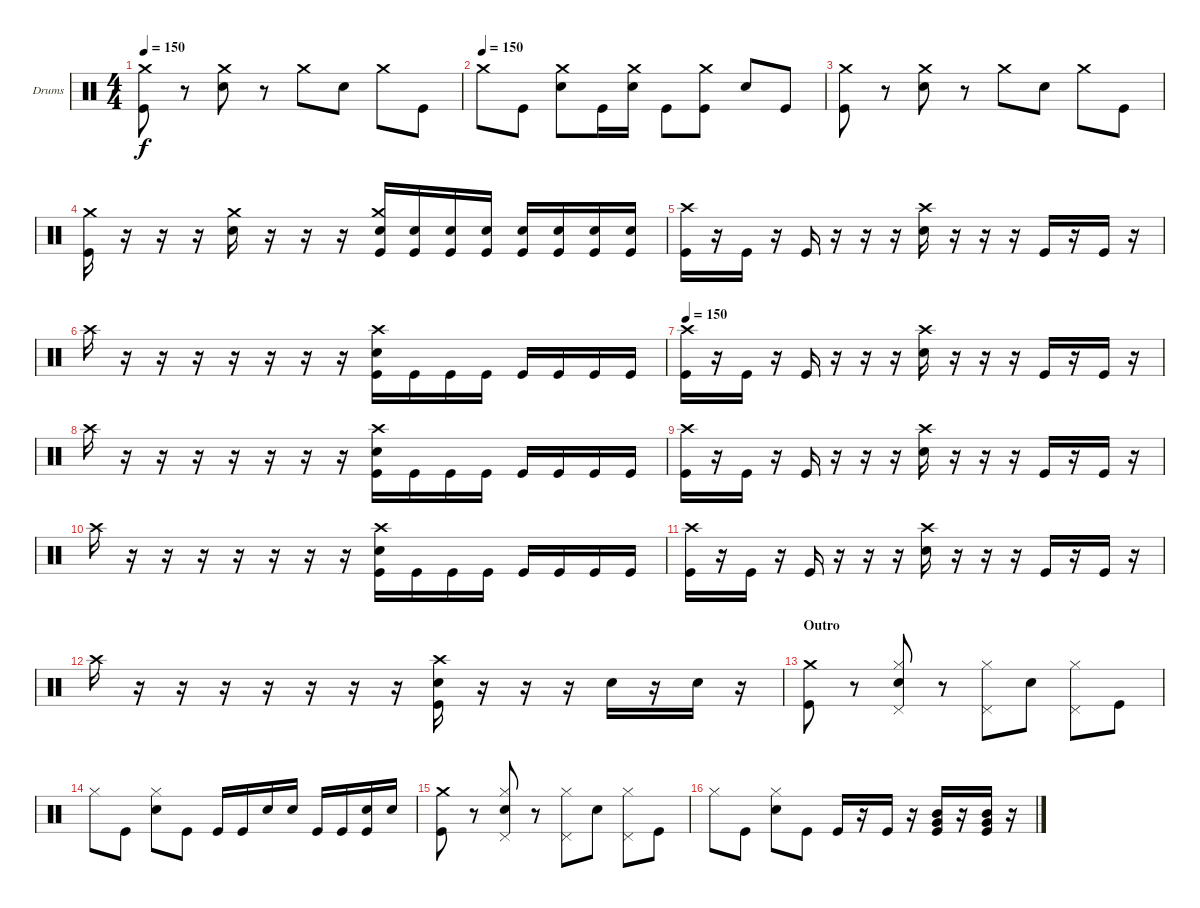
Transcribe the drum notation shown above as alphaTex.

\bracketExtendMode groupsimilarinstruments
\firstSystemTrackNameOrientation horizontal
\otherSystemsTrackNameOrientation horizontal
\track ("Cory La Quay" "Drums") {instrument percussion}
\staff {score}
\articulation defaults
\ts (4 4)
\tempo 150
\clef neutral
\ks c
("Kick (hit)" "Crash medium (hit)").8{dy f} r.8 ("Snare (hit) 2" "Crash medium (hit)").8 r.8 "Crash medium (hit)".8 "Snare (hit) 2".8 "Crash medium (hit)".8 "Kick (hit)".8 |
\tempo (150)
"Crash medium (hit)".8 "Kick (hit)".8 ("Crash medium (hit)" "Snare (hit) 2").8 "Kick (hit)".16 ("Crash medium (hit)" "Snare (hit) 2").16 "Kick (hit)".8 ("Crash medium (hit)" "Kick (hit)").8 "Snare (hit) 2".8 "Kick (hit)".8 |
("Kick (hit)" "Crash medium (hit)").8 r.8 ("Snare (hit) 2" "Crash medium (hit)").8 r.8 "Crash medium (hit)".8 "Snare (hit) 2".8 "Crash medium (hit)".8 "Kick (hit)".8 |
("Kick (hit)" "Crash medium (hit)").16 r.16 r.16 r.16 ("Snare (hit) 2" "Crash medium (hit)").16 r.16 r.16 r.16 ("Snare (hit) 2" "Kick (hit)" "Crash medium (hit)").16 ("Snare (hit) 2" "Kick (hit)").16 ("Snare (hit) 2" "Kick (hit)").16 ("Snare (hit) 2" "Kick (hit)").16 ("Snare (hit) 2" "Kick (hit)").16 ("Snare (hit) 2" "Kick (hit)").16 ("Snare (hit) 2" "Kick (hit)").16 ("Snare (hit) 2" "Kick (hit)").16 |
("Crash high (hit)" "Kick (hit)").16 r.16 "Kick (hit)".16 r.16 "Kick (hit)".16 r.16 r.16 r.16 ("Crash high (hit)" "Snare (hit) 2").16 r.16 r.16 r.16 "Kick (hit)".16 r.16 "Kick (hit)".16 r.16 |
"Crash high (hit)".16 r.16 r.16 r.16 r.16 r.16 r.16 r.16 ("Crash high (hit)" "Snare (hit) 2" "Kick (hit)").16 "Kick (hit)".16 "Kick (hit)".16 "Kick (hit)".16 "Kick (hit)".16 "Kick (hit)".16 "Kick (hit)".16 "Kick (hit)".16 |
\tempo 150
("Crash high (hit)" "Kick (hit)").16 r.16 "Kick (hit)".16 r.16 "Kick (hit)".16 r.16 r.16 r.16 ("Crash high (hit)" "Snare (hit) 2").16 r.16 r.16 r.16 "Kick (hit)".16 r.16 "Kick (hit)".16 r.16 |
"Crash high (hit)".16 r.16 r.16 r.16 r.16 r.16 r.16 r.16 ("Crash high (hit)" "Snare (hit) 2" "Kick (hit)").16 "Kick (hit)".16 "Kick (hit)".16 "Kick (hit)".16 "Kick (hit)".16 "Kick (hit)".16 "Kick (hit)".16 "Kick (hit)".16 |
("Crash high (hit)" "Kick (hit)").16 r.16 "Kick (hit)".16 r.16 "Kick (hit)".16 r.16 r.16 r.16 ("Crash high (hit)" "Snare (hit) 2").16 r.16 r.16 r.16 "Kick (hit)".16 r.16 "Kick (hit)".16 r.16 |
"Crash high (hit)".16 r.16 r.16 r.16 r.16 r.16 r.16 r.16 ("Crash high (hit)" "Snare (hit) 2" "Kick (hit)").16 "Kick (hit)".16 "Kick (hit)".16 "Kick (hit)".16 "Kick (hit)".16 "Kick (hit)".16 "Kick (hit)".16 "Kick (hit)".16 |
("Crash high (hit)" "Kick (hit)").16 r.16 "Kick (hit)".16 r.16 "Kick (hit)".16 r.16 r.16 r.16 ("Crash high (hit)" "Snare (hit) 2").16 r.16 r.16 r.16 "Kick (hit)".16 r.16 "Kick (hit)".16 r.16 |
"Crash high (hit)".16 r.16 r.16 r.16 r.16 r.16 r.16 r.16 ("Crash high (hit)" "Snare (hit) 2" "Kick (hit)").16 r.16 r.16 r.16 "Snare (hit) 2".16 r.16 "Snare (hit) 2".16 r.16 |
\section ("" "Outro")
("Kick (hit)" "Crash medium (hit)").8 r.8 ("Snare (hit) 2" "Hi-Hat (closed)" "Pedal Hi-Hat (hit)").8 r.8 ("Hi-Hat (closed)" "Pedal Hi-Hat (hit)").8 "Snare (hit) 2".8 ("Hi-Hat (closed)" "Pedal Hi-Hat (hit)").8 "Kick (hit)".8 |
"Hi-Hat (closed)".8 "Kick (hit)".8 ("Snare (hit) 2" "Hi-Hat (closed)").8 "Kick (hit)".8 "Kick (hit)".16 "Kick (hit)".16 "Snare (hit) 2".16 "Snare (hit) 2".16 "Kick (hit)".16 "Kick (hit)".16 ("Snare (hit) 2" "Kick (hit)").16 "Snare (hit) 2".16 |
("Kick (hit)" "Crash medium (hit)").8 r.8 ("Snare (hit) 2" "Hi-Hat (closed)" "Pedal Hi-Hat (hit)").8 r.8 ("Hi-Hat (closed)" "Pedal Hi-Hat (hit)").8 "Snare (hit) 2".8 ("Hi-Hat (closed)" "Pedal Hi-Hat (hit)").8 "Kick (hit)".8 |
"Hi-Hat (closed)".8 "Kick (hit)".8 ("Snare (hit) 2" "Hi-Hat (closed)").8 "Kick (hit)".8 "Kick (hit)".16 r.16 "Kick (hit)".16 r.16 ("Kick (hit)" "Mid Tom (hit)" "Very Low Tom (hit)").16 r.16 ("Kick (hit)" "Mid Tom (hit)" "Very Low Tom (hit)").16 r.16
